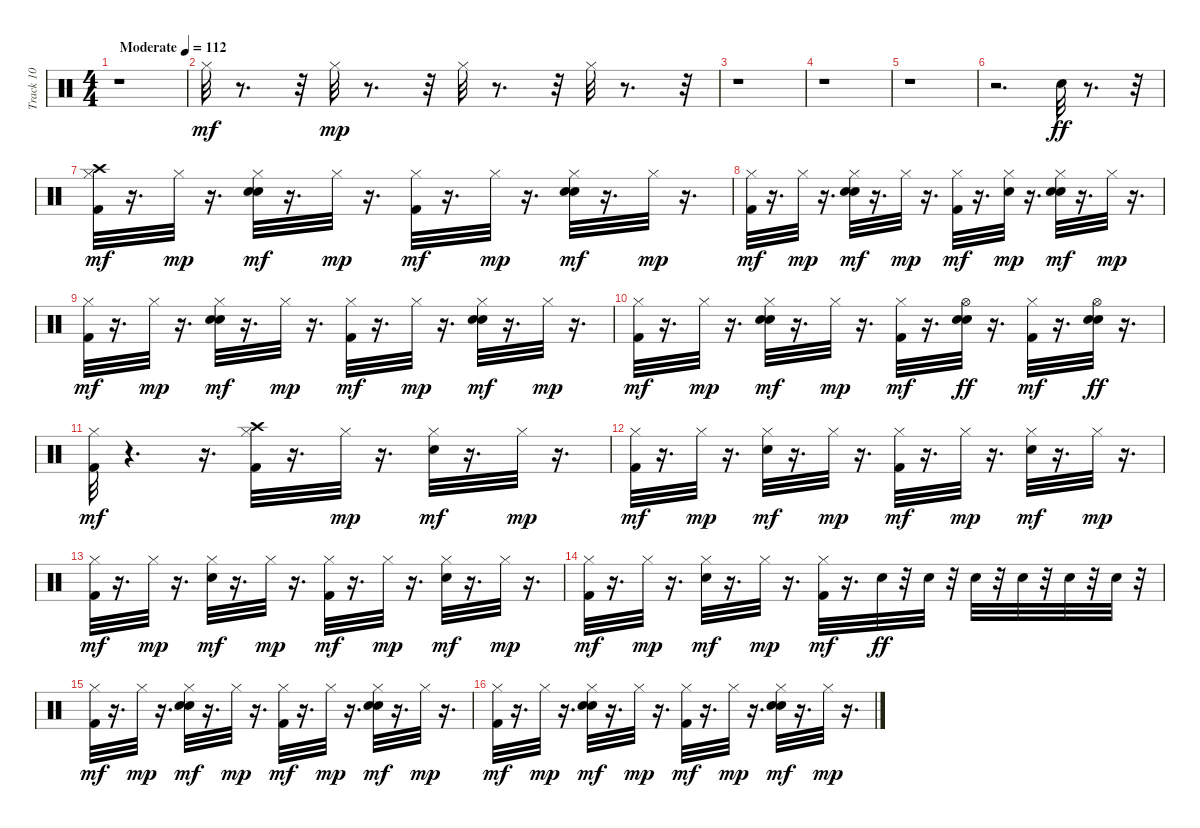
\track ("Track 10" "Track 10") {instrument percussion}
\staff {score}
\articulation defaults
\ts (4 4)
\tempo (112 "Moderate")
\clef neutral
\ks c
r.1{dy mf} |
"Hi-Hat (closed)".32 r.8{d} r.32 "Hi-Hat (closed)".32{dy mp} r.8{d} r.32 "Hi-Hat (closed)".32 r.8{d} r.32 "Hi-Hat (closed)".32 r.8{d} r.32 |
r.1 |
r.1 |
r.1 |
r.2{d} "Electric Snare (hit)".32{dy ff} r.8{d} r.32 |
("Kick (hit) 2" "Hi-Hat (closed)" "Crash high (hit)").32{dy mf} r.16{d} "Hi-Hat (closed)".32{dy mp} r.16{d} ("Hand Clap (hit)" "Electric Snare (hit)" "Hi-Hat (closed)").32{dy mf} r.16{d} "Hi-Hat (closed)".32{dy mp} r.16{d} ("Kick (hit) 2" "Hi-Hat (closed)").32{dy mf} r.16{d} "Hi-Hat (closed)".32{dy mp} r.16{d} ("Hand Clap (hit)" "Electric Snare (hit)" "Hi-Hat (closed)").32{dy mf} r.16{d} "Hi-Hat (closed)".32{dy mp} r.16{d} |
("Kick (hit) 2" "Hi-Hat (closed)").32{dy mf} r.16{d} "Hi-Hat (closed)".32{dy mp} r.16{d} ("Hand Clap (hit)" "Electric Snare (hit)" "Hi-Hat (closed)").32{dy mf} r.16{d} "Hi-Hat (closed)".32{dy mp} r.16{d} ("Kick (hit) 2" "Hi-Hat (closed)").32{dy mf} r.16{d} ("Hand Clap (hit)" "Hi-Hat (closed)").32{dy mp} r.16{d} ("Hand Clap (hit)" "Electric Snare (hit)" "Hi-Hat (closed)").32{dy mf} r.16{d} "Hi-Hat (closed)".32{dy mp} r.16{d} |
("Kick (hit) 2" "Hi-Hat (closed)").32{dy mf} r.16{d} "Hi-Hat (closed)".32{dy mp} r.16{d} ("Hand Clap (hit)" "Electric Snare (hit)" "Hi-Hat (closed)").32{dy mf} r.16{d} "Hi-Hat (closed)".32{dy mp} r.16{d} ("Kick (hit) 2" "Hi-Hat (closed)").32{dy mf} r.16{d} "Hi-Hat (closed)".32{dy mp} r.16{d} ("Hand Clap (hit)" "Electric Snare (hit)" "Hi-Hat (closed)").32{dy mf} r.16{d} "Hi-Hat (closed)".32{dy mp} r.16{d} |
("Kick (hit) 2" "Hi-Hat (closed)").32{dy mf} r.16{d} "Hi-Hat (closed)".32{dy mp} r.16{d} ("Hand Clap (hit)" "Electric Snare (hit)" "Hi-Hat (closed)").32{dy mf} r.16{d} "Hi-Hat (closed)".32{dy mp} r.16{d} ("Kick (hit) 2" "Hi-Hat (closed)").32{dy mf} r.16{d} ("Hand Clap (hit)" "Electric Snare (hit)" "Hi-Hat (open)").32{dy ff} r.16{d} ("Kick (hit) 2" "Hi-Hat (closed)").32{dy mf} r.16{d} ("Hand Clap (hit)" "Electric Snare (hit)" "Hi-Hat (open)").32{dy ff} r.16{d} |
("Kick (hit) 2" "Hi-Hat (closed)").32{dy mf} r.4{d} r.16{d} ("Kick (hit) 2" "Hi-Hat (closed)" "Crash high (hit)").32 r.16{d} "Hi-Hat (closed)".32{dy mp} r.16{d} ("Electric Snare (hit)" "Hi-Hat (closed)").32{dy mf} r.16{d} "Hi-Hat (closed)".32{dy mp} r.16{d} |
("Kick (hit) 2" "Hi-Hat (closed)").32{dy mf} r.16{d} "Hi-Hat (closed)".32{dy mp} r.16{d} ("Electric Snare (hit)" "Hi-Hat (closed)").32{dy mf} r.16{d} "Hi-Hat (closed)".32{dy mp} r.16{d} ("Kick (hit) 2" "Hi-Hat (closed)").32{dy mf} r.16{d} "Hi-Hat (closed)".32{dy mp} r.16{d} ("Electric Snare (hit)" "Hi-Hat (closed)").32{dy mf} r.16{d} "Hi-Hat (closed)".32{dy mp} r.16{d} |
("Kick (hit) 2" "Hi-Hat (closed)").32{dy mf} r.16{d} "Hi-Hat (closed)".32{dy mp} r.16{d} ("Electric Snare (hit)" "Hi-Hat (closed)").32{dy mf} r.16{d} "Hi-Hat (closed)".32{dy mp} r.16{d} ("Kick (hit) 2" "Hi-Hat (closed)").32{dy mf} r.16{d} "Hi-Hat (closed)".32{dy mp} r.16{d} ("Electric Snare (hit)" "Hi-Hat (closed)").32{dy mf} r.16{d} "Hi-Hat (closed)".32{dy mp} r.16{d} |
("Kick (hit) 2" "Hi-Hat (closed)").32{dy mf} r.16{d} "Hi-Hat (closed)".32{dy mp} r.16{d} ("Electric Snare (hit)" "Hi-Hat (closed)").32{dy mf} r.16{d} "Hi-Hat (closed)".32{dy mp} r.16{d} ("Kick (hit) 2" "Hi-Hat (closed)").32{dy mf} r.16{d} "Electric Snare (hit)".32{dy ff} r.32 "Electric Snare (hit)".32 r.32 "Electric Snare (hit)".32 r.32 "Electric Snare (hit)".32 r.32 "Electric Snare (hit)".32 r.32 "Electric Snare (hit)".32 r.32 |
("Kick (hit) 2" "Hi-Hat (closed)").32{dy mf} r.16{d} "Hi-Hat (closed)".32{dy mp} r.16{d} ("Hand Clap (hit)" "Electric Snare (hit)" "Hi-Hat (closed)").32{dy mf} r.16{d} "Hi-Hat (closed)".32{dy mp} r.16{d} ("Kick (hit) 2" "Hi-Hat (closed)").32{dy mf} r.16{d} "Hi-Hat (closed)".32{dy mp} r.16{d} ("Hand Clap (hit)" "Electric Snare (hit)" "Hi-Hat (closed)").32{dy mf} r.16{d} "Hi-Hat (closed)".32{dy mp} r.16{d} |
("Kick (hit) 2" "Hi-Hat (closed)").32{dy mf} r.16{d} "Hi-Hat (closed)".32{dy mp} r.16{d} ("Hand Clap (hit)" "Electric Snare (hit)" "Hi-Hat (closed)").32{dy mf} r.16{d} "Hi-Hat (closed)".32{dy mp} r.16{d} ("Kick (hit) 2" "Hi-Hat (closed)").32{dy mf} r.16{d} "Hi-Hat (closed)".32{dy mp} r.16{d} ("Hand Clap (hit)" "Electric Snare (hit)" "Hi-Hat (closed)").32{dy mf} r.16{d} "Hi-Hat (closed)".32{dy mp} r.16{d}
